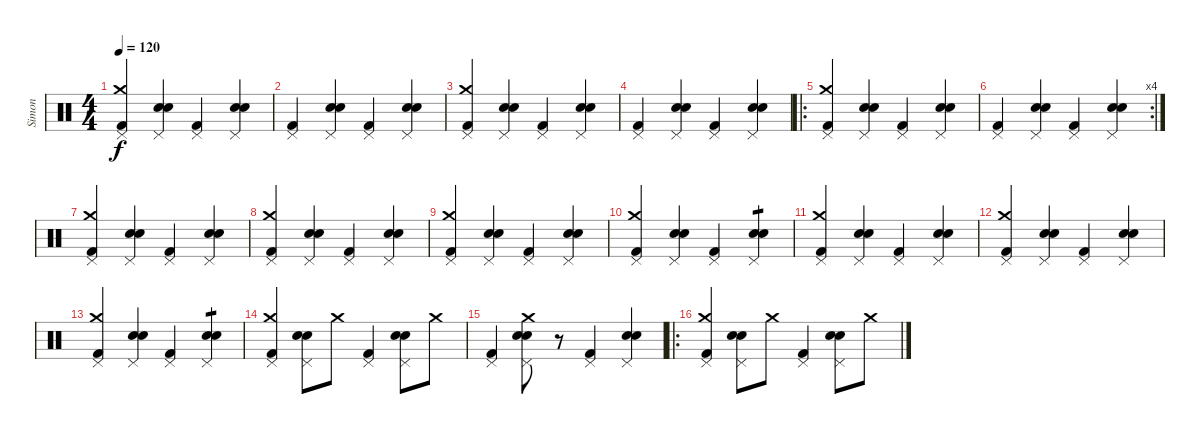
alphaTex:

\track ("Simon" "Simon") {instrument percussion}
\staff {score}
\articulation defaults
\ts (4 4)
\tempo 120
\clef neutral
\ks c
("Kick (hit) 2" "Crash medium (hit)" "Pedal Hi-Hat (hit)").4{dy f} ("Snare (hit) 2" "Electric Snare (hit)" "Pedal Hi-Hat (hit)").4 ("Kick (hit) 2" "Pedal Hi-Hat (hit)").4 ("Snare (hit) 2" "Electric Snare (hit)" "Pedal Hi-Hat (hit)").4 |
("Kick (hit) 2" "Pedal Hi-Hat (hit)").4 ("Snare (hit) 2" "Electric Snare (hit)" "Pedal Hi-Hat (hit)").4 ("Kick (hit) 2" "Pedal Hi-Hat (hit)").4 ("Snare (hit) 2" "Electric Snare (hit)" "Pedal Hi-Hat (hit)").4 |
("Kick (hit) 2" "Crash medium (hit)" "Pedal Hi-Hat (hit)").4 ("Snare (hit) 2" "Electric Snare (hit)" "Pedal Hi-Hat (hit)").4 ("Kick (hit) 2" "Pedal Hi-Hat (hit)").4 ("Snare (hit) 2" "Electric Snare (hit)" "Pedal Hi-Hat (hit)").4 |
("Kick (hit) 2" "Pedal Hi-Hat (hit)").4 ("Snare (hit) 2" "Electric Snare (hit)" "Pedal Hi-Hat (hit)").4 ("Kick (hit) 2" "Pedal Hi-Hat (hit)").4 ("Snare (hit) 2" "Electric Snare (hit)" "Pedal Hi-Hat (hit)").4 |
\ro
("Kick (hit) 2" "Crash medium (hit)" "Pedal Hi-Hat (hit)").4 ("Snare (hit) 2" "Electric Snare (hit)" "Pedal Hi-Hat (hit)").4 ("Kick (hit) 2" "Pedal Hi-Hat (hit)").4 ("Snare (hit) 2" "Electric Snare (hit)" "Pedal Hi-Hat (hit)").4 |
\rc 4
("Kick (hit) 2" "Pedal Hi-Hat (hit)").4 ("Snare (hit) 2" "Electric Snare (hit)" "Pedal Hi-Hat (hit)").4 ("Kick (hit) 2" "Pedal Hi-Hat (hit)").4 ("Snare (hit) 2" "Electric Snare (hit)" "Pedal Hi-Hat (hit)").4 |
("Kick (hit) 2" "Crash medium (hit)" "Pedal Hi-Hat (hit)").4 ("Snare (hit) 2" "Electric Snare (hit)" "Pedal Hi-Hat (hit)").4 ("Kick (hit) 2" "Pedal Hi-Hat (hit)").4 ("Snare (hit) 2" "Electric Snare (hit)" "Pedal Hi-Hat (hit)").4 |
("Kick (hit) 2" "Crash medium (hit)" "Pedal Hi-Hat (hit)").4 ("Snare (hit) 2" "Electric Snare (hit)" "Pedal Hi-Hat (hit)").4 ("Kick (hit) 2" "Pedal Hi-Hat (hit)").4 ("Snare (hit) 2" "Electric Snare (hit)" "Pedal Hi-Hat (hit)").4 |
("Kick (hit) 2" "Crash medium (hit)" "Pedal Hi-Hat (hit)").4 ("Snare (hit) 2" "Electric Snare (hit)" "Pedal Hi-Hat (hit)").4 ("Kick (hit) 2" "Pedal Hi-Hat (hit)").4 ("Snare (hit) 2" "Electric Snare (hit)" "Pedal Hi-Hat (hit)").4 |
("Kick (hit) 2" "Crash medium (hit)" "Pedal Hi-Hat (hit)").4 ("Snare (hit) 2" "Electric Snare (hit)" "Pedal Hi-Hat (hit)").4 ("Kick (hit) 2" "Pedal Hi-Hat (hit)").4 ("Snare (hit) 2" "Electric Snare (hit)" "Pedal Hi-Hat (hit)").4{tp 1} |
("Kick (hit) 2" "Crash medium (hit)" "Pedal Hi-Hat (hit)").4 ("Snare (hit) 2" "Electric Snare (hit)" "Pedal Hi-Hat (hit)").4 ("Kick (hit) 2" "Pedal Hi-Hat (hit)").4 ("Snare (hit) 2" "Electric Snare (hit)" "Pedal Hi-Hat (hit)").4 |
("Kick (hit) 2" "Crash medium (hit)" "Pedal Hi-Hat (hit)").4 ("Snare (hit) 2" "Electric Snare (hit)" "Pedal Hi-Hat (hit)").4 ("Kick (hit) 2" "Pedal Hi-Hat (hit)").4 ("Snare (hit) 2" "Electric Snare (hit)" "Pedal Hi-Hat (hit)").4 |
("Kick (hit) 2" "Crash medium (hit)" "Pedal Hi-Hat (hit)").4 ("Snare (hit) 2" "Electric Snare (hit)" "Pedal Hi-Hat (hit)").4 ("Kick (hit) 2" "Pedal Hi-Hat (hit)").4 ("Snare (hit) 2" "Electric Snare (hit)" "Pedal Hi-Hat (hit)").4{tp 1} |
("Kick (hit) 2" "Crash medium (hit)" "Pedal Hi-Hat (hit)").4 ("Snare (hit) 2" "Electric Snare (hit)" "Pedal Hi-Hat (hit)").8 "Crash medium (hit)".8 ("Kick (hit) 2" "Pedal Hi-Hat (hit)").4 ("Snare (hit) 2" "Electric Snare (hit)" "Pedal Hi-Hat (hit)").8 "Crash medium (hit)".8 |
("Kick (hit) 2" "Pedal Hi-Hat (hit)").4 ("Snare (hit) 2" "Electric Snare (hit)" "Crash medium (hit)" "Pedal Hi-Hat (hit)").8 r.8 ("Kick (hit) 2" "Pedal Hi-Hat (hit)").4 ("Snare (hit) 2" "Electric Snare (hit)" "Pedal Hi-Hat (hit)").4 |
\ro
("Kick (hit) 2" "Crash medium (hit)" "Pedal Hi-Hat (hit)").4 ("Snare (hit) 2" "Electric Snare (hit)" "Pedal Hi-Hat (hit)").8 "Crash medium (hit)".8 ("Kick (hit) 2" "Pedal Hi-Hat (hit)").4 ("Snare (hit) 2" "Electric Snare (hit)" "Pedal Hi-Hat (hit)").8 "Crash medium (hit)".8
